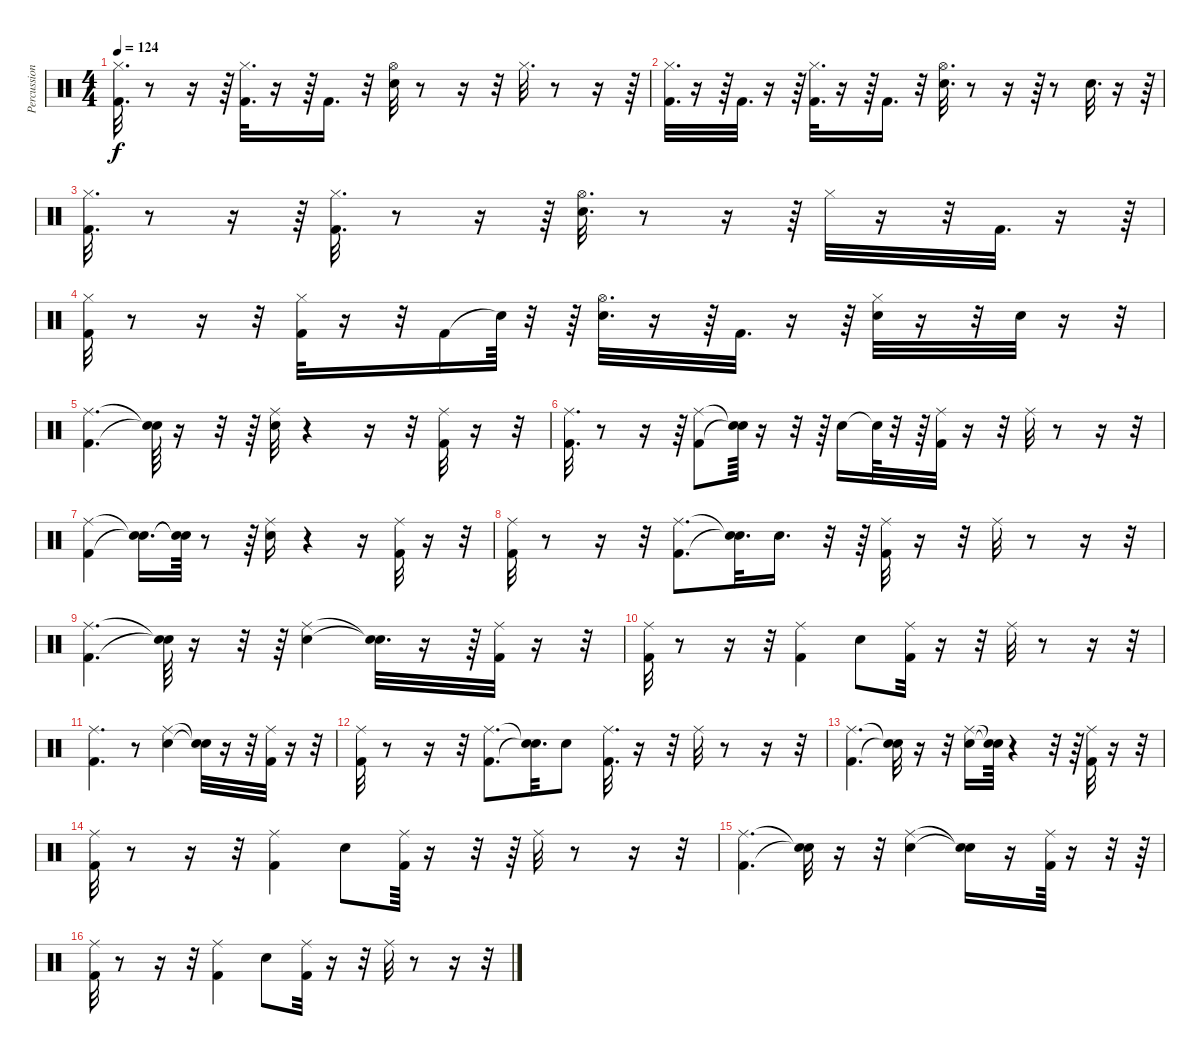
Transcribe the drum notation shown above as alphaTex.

\track ("Percussion" "Percussion") {instrument percussion}
\staff {score}
\articulation defaults
\ts (4 4)
\tempo 124
\clef neutral
\ks c
("Hi-Hat (closed)" "Kick (hit) 2").32{d dy f} r.8 r.16 r.64 ("Hi-Hat (closed)" "Kick (hit) 2").32{d} r.16 r.64 "Kick (hit) 2".16{d} r.32 ("Hi-Hat (open)" "Electric Snare (hit)").32 r.8 r.16 r.32 "Hi-Hat (closed)".32{d} r.8 r.16 r.64 |
("Hi-Hat (closed)" "Kick (hit) 2").32{d} r.16 r.64 "Kick (hit) 2".32{d} r.16 r.64 ("Hi-Hat (closed)" "Kick (hit) 2").32{d} r.16 r.64 "Kick (hit) 2".16{d} r.32 ("Hi-Hat (open)" "Electric Snare (hit)").32{d} r.8 r.16 r.64 r.8 "Electric Snare (hit)".32{d} r.16 r.64 |
("Hi-Hat (closed)" "Kick (hit) 2").32{d} r.8 r.16 r.64 ("Hi-Hat (closed)" "Kick (hit) 2").32{d} r.8 r.16 r.64 ("Electric Snare (hit)" "Hi-Hat (open)").32{d} r.8 r.16 r.64 "Hi-Hat (closed)".32 r.16 r.32 "Kick (hit) 2".32{d} r.16 r.64 |
("Hi-Hat (closed)" "Kick (hit) 2").32 r.8 r.16 r.32 ("Hi-Hat (closed)" "Kick (hit) 2").32 r.16 r.32 "Kick (hit) 2".16 "Snare (hit)"{t}.64 r.32 r.64 ("Hi-Hat (open)" "Electric Snare (hit)").32{d} r.16 r.64 "Kick (hit) 2".32{d} r.16 r.64 ("Electric Snare (hit)" "Hi-Hat (closed)").32 r.16 r.32 "Electric Snare (hit)".32 r.16 r.32 |
("Ride (middle)" "Kick (hit) 2").4{d} ("Snare (hit)"{t} "Snare (hit)"{t}).64 r.16 r.32 r.64 ("Ride (middle)" "Electric Snare (hit)").32 r.4 r.16 r.32 ("Ride (middle)" "Kick (hit) 2").32 r.16 r.32 |
("Kick (hit) 2" "Ride (middle)").32{d} r.8 r.16 r.64 ("Kick (hit) 2" "Ride (middle)").8 ("Snare (hit)"{t} "Snare (hit)"{t}).64 r.16 r.32 r.64 "Electric Snare (hit)".16 "Snare (hit)"{t}.64 r.32 r.64 ("Ride (middle)" "Kick (hit) 2").32 r.16 r.32 "Ride (middle)".32 r.8 r.16 r.32 |
("Ride (middle)" "Kick (hit) 2").4 ("Snare (hit)"{t} "Snare (hit)"{t}).16{d} ("Snare (hit)"{t} "Snare (hit)"{t}).64 r.8 r.64 ("Ride (middle)" "Electric Snare (hit)").16 r.4 r.16 ("Ride (middle)" "Kick (hit) 2").32 r.16 r.32 |
("Kick (hit) 2" "Ride (middle)").32 r.8 r.16 r.32 ("Kick (hit) 2" "Ride (middle)").8{d} ("Snare (hit)"{t} "Snare (hit)"{t}).32{d} "Electric Snare (hit)".16{d} r.32 r.64 ("Ride (middle)" "Kick (hit) 2").32 r.16 r.32 "Ride (middle)".32 r.8 r.16 r.32 |
("Kick (hit) 2" "Ride (middle)").4{d} ("Snare (hit)"{t} "Snare (hit)"{t}).64 r.16 r.32 r.64 ("Ride (middle)" "Electric Snare (hit)").4 ("Snare (hit)"{t} "Snare (hit)"{t}).32{d} r.16 r.64 ("Ride (middle)" "Kick (hit) 2").32 r.16 r.32 |
("Kick (hit) 2" "Ride (middle)").32 r.8 r.16 r.32 ("Kick (hit) 2" "Ride (middle)").4 "Electric Snare (hit)".8 ("Ride (middle)" "Kick (hit) 2").32 r.16 r.32 "Ride (middle)".32 r.8 r.16 r.32 |
("Ride (middle)" "Kick (hit) 2").4{d} r.8 ("Electric Snare (hit)" "Ride (middle)").4 ("Snare (hit)"{t} "Snare (hit)"{t}).32 r.16 r.32 ("Ride (middle)" "Kick (hit) 2").32 r.16 r.32 |
("Kick (hit) 2" "Ride (middle)").32 r.8 r.16 r.32 ("Ride (middle)" "Kick (hit) 2").8{d} ("Snare (hit)"{t} "Snare (hit)"{t}).32{d} "Electric Snare (hit)".8 ("Ride (middle)" "Kick (hit) 2").32{d} r.16 r.32 "Ride (middle)".32 r.8 r.16 r.32 |
("Ride (middle)" "Kick (hit) 2").4{d} ("Snare (hit)"{t} "Snare (hit)"{t}).32 r.16 r.32 ("Electric Snare (hit)" "Ride (middle)").16 ("Snare (hit)"{t} "Snare (hit)"{t}).64 r.4 r.32 r.64 ("Ride (middle)" "Kick (hit) 2").32 r.16 r.32 |
("Kick (hit) 2" "Ride (middle)").32 r.8 r.16 r.32 ("Ride (middle)" "Kick (hit) 2").4 "Electric Snare (hit)".8 ("Ride (middle)" "Kick (hit) 2").64 r.16 r.32 r.64 "Ride (middle)".32 r.8 r.16 r.32 |
("Ride (middle)" "Kick (hit) 2").4{d} ("Snare (hit)"{t} "Snare (hit)"{t}).32 r.16 r.32 ("Electric Snare (hit)" "Ride (middle)").4 ("Snare (hit)"{t} "Snare (hit)"{t}).16 r.16 ("Ride (middle)" "Kick (hit) 2").64 r.16 r.32 r.64 |
("Kick (hit) 2" "Ride (middle)").32 r.8 r.16 r.32 ("Ride (middle)" "Kick (hit) 2").4 "Electric Snare (hit)".8 ("Ride (middle)" "Kick (hit) 2").32 r.16 r.32 "Ride (middle)".32 r.8 r.16 r.32
